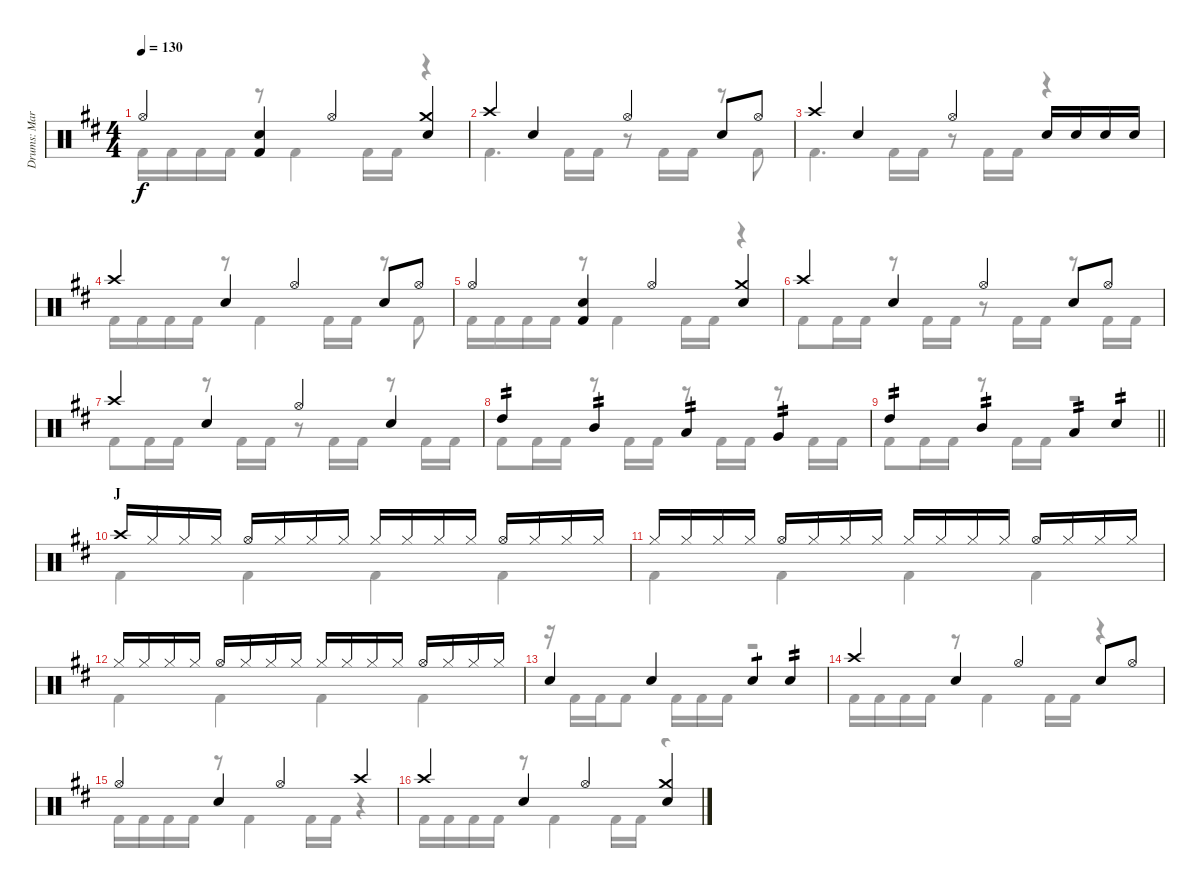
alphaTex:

\track ("Drums: Mark" "Drums: Mar") {instrument percussion}
\staff {score}
\articulation defaults
\voice
\ts (4 4)
\tempo 130
\clef neutral
\ks d "Hi-Hat (open)".4{dy f}
("Snare (hit) 2" "Kick (hit) 2").4 "Hi-Hat (open)".4 ("Crash medium (hit)" "Snare (hit) 2").4 |
"Crash high (hit)".4 "Snare (hit) 2".4 "Hi-Hat (open)".4 "Snare (hit) 2".8 "Hi-Hat (open)".8 |
"Crash high (hit)".4 "Snare (hit) 2".4 "Hi-Hat (open)".4 "Snare (hit) 2".16 "Snare (hit) 2".16 "Snare (hit) 2".16 "Snare (hit) 2".16 |
"Crash high (hit)".4 "Snare (hit) 2".4 "Hi-Hat (open)".4 "Snare (hit) 2".8 "Hi-Hat (open)".8 |
"Hi-Hat (open)".4 ("Snare (hit) 2" "Kick (hit) 2").4 "Hi-Hat (open)".4 ("Crash medium (hit)" "Snare (hit) 2").4 |
"Crash high (hit)".4 "Snare (hit) 2".4 "Hi-Hat (open)".4 "Snare (hit) 2".8 "Hi-Hat (open)".8 |
"Crash high (hit)".4 "Snare (hit) 2".4 "Hi-Hat (open)".4 "Snare (hit) 2".4 |
"High Tom (hit)".4{tp 2} "Mid Tom (hit)".4{tp 2} "Low Tom (hit)".4{tp 2} "Very Low Tom (hit)".4{tp 2} |
\barLineRight lightlight "High Tom (hit)".4{tp 2} "Mid Tom (hit)".4{tp 2} "Low Tom (hit)".4{tp 2} "Snare (hit) 2".4{tp 2}
|
\section ("" "J")
"Crash high (hit)".16 "Hi-Hat (closed)".16 "Hi-Hat (closed)".16 "Hi-Hat (closed)".16 "Hi-Hat (open)".16 "Hi-Hat (closed)".16 "Hi-Hat (closed)".16 "Hi-Hat (closed)".16 "Hi-Hat (closed)".16 "Hi-Hat (closed)".16 "Hi-Hat (closed)".16 "Hi-Hat (closed)".16 "Hi-Hat (open)".16 "Hi-Hat (closed)".16 "Hi-Hat (closed)".16 "Hi-Hat (closed)".16 |
"Hi-Hat (closed)".16 "Hi-Hat (closed)".16 "Hi-Hat (closed)".16 "Hi-Hat (closed)".16 "Hi-Hat (open)".16 "Hi-Hat (closed)".16 "Hi-Hat (closed)".16 "Hi-Hat (closed)".16 "Hi-Hat (closed)".16 "Hi-Hat (closed)".16 "Hi-Hat (closed)".16 "Hi-Hat (closed)".16 "Hi-Hat (open)".16 "Hi-Hat (closed)".16 "Hi-Hat (closed)".16 "Hi-Hat (closed)".16 |
"Hi-Hat (closed)".16 "Hi-Hat (closed)".16 "Hi-Hat (closed)".16 "Hi-Hat (closed)".16 "Hi-Hat (open)".16 "Hi-Hat (closed)".16 "Hi-Hat (closed)".16 "Hi-Hat (closed)".16 "Hi-Hat (closed)".16 "Hi-Hat (closed)".16 "Hi-Hat (closed)".16 "Hi-Hat (closed)".16 "Hi-Hat (open)".16 "Hi-Hat (closed)".16 "Hi-Hat (closed)".16 "Hi-Hat (closed)".16 |
"Snare (hit) 2".4 "Snare (hit) 2".4 "Snare (hit) 2".4{tp 1} "Snare (hit) 2".4{tp 2} |
"Crash high (hit)".4 "Snare (hit) 2".4 "Hi-Hat (open)".4 "Snare (hit) 2".8 "Hi-Hat (open)".8 |
"Hi-Hat (open)".4 "Snare (hit) 2".4 "Hi-Hat (open)".4 "Crash high (hit)".4 |
"Crash high (hit)".4 "Snare (hit) 2".4 "Hi-Hat (open)".4 ("Crash medium (hit)" "Snare (hit) 2").4
\voice
\clef neutral
\ottava regular
\simile none
\ks d "Kick (hit) 2".16{dy f} "Kick (hit) 2".16 "Kick (hit) 2".16 "Kick (hit) 2".16
r.8 "Kick (hit) 2".4 "Kick (hit) 2".16 "Kick (hit) 2".16 r.4 |
"Kick (hit) 2".4{d} "Kick (hit) 2".16 "Kick (hit) 2".16 r.8 "Kick (hit) 2".16 "Kick (hit) 2".16 r.8 "Kick (hit) 2".8 |
"Kick (hit) 2".4{d} "Kick (hit) 2".16 "Kick (hit) 2".16 r.8 "Kick (hit) 2".16 "Kick (hit) 2".16 r.4 |
"Kick (hit) 2".16 "Kick (hit) 2".16 "Kick (hit) 2".16 "Kick (hit) 2".16 r.8 "Kick (hit) 2".4 "Kick (hit) 2".16 "Kick (hit) 2".16 r.8 "Kick (hit) 2".8 |
"Kick (hit) 2".16 "Kick (hit) 2".16 "Kick (hit) 2".16 "Kick (hit) 2".16 r.8 "Kick (hit) 2".4 "Kick (hit) 2".16 "Kick (hit) 2".16 r.4 |
"Kick (hit) 2".8 "Kick (hit) 2".16 "Kick (hit) 2".16 r.8 "Kick (hit) 2".16 "Kick (hit) 2".16 r.8 "Kick (hit) 2".16 "Kick (hit) 2".16 r.8 "Kick (hit) 2".16 "Kick (hit) 2".16 |
"Kick (hit) 2".8 "Kick (hit) 2".16 "Kick (hit) 2".16 r.8 "Kick (hit) 2".16 "Kick (hit) 2".16 r.8 "Kick (hit) 2".16 "Kick (hit) 2".16 r.8 "Kick (hit) 2".16 "Kick (hit) 2".16 |
"Kick (hit) 2".8 "Kick (hit) 2".16 "Kick (hit) 2".16 r.8 "Kick (hit) 2".16 "Kick (hit) 2".16 r.8 "Kick (hit) 2".16 "Kick (hit) 2".16 r.8 "Kick (hit) 2".16 "Kick (hit) 2".16 |
\barLineRight lightlight "Kick (hit) 2".8 "Kick (hit) 2".16 "Kick (hit) 2".16
r.8 "Kick (hit) 2".16 "Kick (hit) 2".16 r.2 |
"Kick (hit) 2".4 "Kick (hit) 2".4 "Kick (hit) 2".4 "Kick (hit) 2".4 |
"Kick (hit) 2".4 "Kick (hit) 2".4 "Kick (hit) 2".4 "Kick (hit) 2".4 |
"Kick (hit) 2".4 "Kick (hit) 2".4 "Kick (hit) 2".4 "Kick (hit) 2".4 |
r.16 "Kick (hit) 2".16 "Kick (hit) 2".16 "Kick (hit) 2".8 "Kick (hit) 2".16 "Kick (hit) 2".16 "Kick (hit) 2".16 r.2 |
"Kick (hit) 2".16 "Kick (hit) 2".16 "Kick (hit) 2".16 "Kick (hit) 2".16 r.8 "Kick (hit) 2".4 "Kick (hit) 2".16 "Kick (hit) 2".16 r.4 |
"Kick (hit) 2".16 "Kick (hit) 2".16 "Kick (hit) 2".16 "Kick (hit) 2".16 r.8 "Kick (hit) 2".4 "Kick (hit) 2".16 "Kick (hit) 2".16 r.4 |
"Kick (hit) 2".16 "Kick (hit) 2".16 "Kick (hit) 2".16 "Kick (hit) 2".16 r.8 "Kick (hit) 2".4 "Kick (hit) 2".16 "Kick (hit) 2".16 r.4
